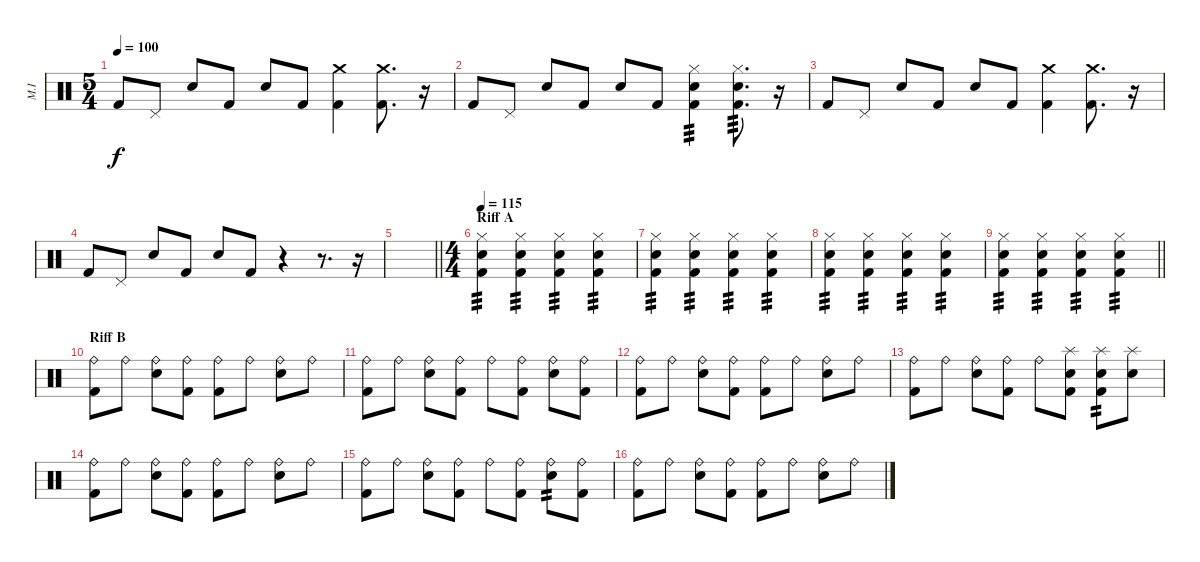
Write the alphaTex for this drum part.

\track ("M.I" "M.I") {instrument percussion}
\staff {score}
\articulation defaults
\ts (5 4)
\tempo 100
\clef neutral
\ks c "Kick (hit) 2".8{dy f} "Pedal Hi-Hat (hit)".8 "Snare (hit) 2".8 "Kick (hit) 2".8 "Snare (hit) 2".8 "Kick (hit) 2".8
("Crash medium (hit)" "Kick (hit) 2").4 ("Crash medium (hit)" "Kick (hit) 2").8{d} r.16 |
"Kick (hit) 2".8 "Pedal Hi-Hat (hit)".8 "Snare (hit) 2".8 "Kick (hit) 2".8 "Snare (hit) 2".8 "Kick (hit) 2".8 ("Hi-Hat (closed)" "Snare (hit) 2" "Kick (hit) 2").4{tp 3} ("Hi-Hat (closed)" "Snare (hit) 2" "Kick (hit) 2").8{d tp 3} r.16 |
"Kick (hit) 2".8 "Pedal Hi-Hat (hit)".8 "Snare (hit) 2".8 "Kick (hit) 2".8 "Snare (hit) 2".8 "Kick (hit) 2".8 ("Crash medium (hit)" "Kick (hit) 2").4 ("Crash medium (hit)" "Kick (hit) 2").8{d} r.16 |
"Kick (hit) 2".8 "Pedal Hi-Hat (hit)".8 "Snare (hit) 2".8 "Kick (hit) 2".8 "Snare (hit) 2".8 "Kick (hit) 2".8 r.4 r.8{d} r.16 |
\barLineRight lightlight
|
\ts (4 4)
\section ("" "Riff A")
\tempo 115
("Hi-Hat (closed)" "Snare (hit) 2" "Kick (hit) 2").4{tp 3} ("Hi-Hat (closed)" "Snare (hit) 2" "Kick (hit) 2").4{tp 3} ("Hi-Hat (closed)" "Snare (hit) 2" "Kick (hit) 2").4{tp 3} ("Hi-Hat (closed)" "Snare (hit) 2" "Kick (hit) 2").4{tp 3} |
("Hi-Hat (closed)" "Snare (hit) 2" "Kick (hit) 2").4{tp 3} ("Hi-Hat (closed)" "Snare (hit) 2" "Kick (hit) 2").4{tp 3} ("Hi-Hat (closed)" "Snare (hit) 2" "Kick (hit) 2").4{tp 3} ("Hi-Hat (closed)" "Snare (hit) 2" "Kick (hit) 2").4{tp 3} |
("Hi-Hat (closed)" "Snare (hit) 2" "Kick (hit) 2").4{tp 3} ("Hi-Hat (closed)" "Snare (hit) 2" "Kick (hit) 2").4{tp 3} ("Hi-Hat (closed)" "Snare (hit) 2" "Kick (hit) 2").4{tp 3} ("Hi-Hat (closed)" "Snare (hit) 2" "Kick (hit) 2").4{tp 3} |
\barLineRight lightlight
("Hi-Hat (closed)" "Snare (hit) 2" "Kick (hit) 2").4{tp 3} ("Hi-Hat (closed)" "Snare (hit) 2" "Kick (hit) 2").4{tp 3} ("Hi-Hat (closed)" "Snare (hit) 2" "Kick (hit) 2").4{tp 3} ("Hi-Hat (closed)" "Snare (hit) 2" "Kick (hit) 2").4{tp 3} |
\section ("" "Riff B")
("Ride (bell)" "Kick (hit) 2").8 "Ride (bell)".8 ("Ride (bell)" "Snare (hit) 2").8 ("Ride (bell)" "Kick (hit) 2").8 ("Ride (bell)" "Kick (hit) 2").8 "Ride (bell)".8 ("Ride (bell)" "Snare (hit) 2").8 "Ride (bell)".8 |
("Ride (bell)" "Kick (hit) 2").8 "Ride (bell)".8 ("Ride (bell)" "Snare (hit) 2").8 ("Ride (bell)" "Kick (hit) 2").8 "Ride (bell)".8 ("Ride (bell)" "Kick (hit) 2").8 ("Ride (bell)" "Snare (hit) 2").8 ("Ride (bell)" "Kick (hit) 2").8 |
("Ride (bell)" "Kick (hit) 2").8 "Ride (bell)".8 ("Ride (bell)" "Snare (hit) 2").8 ("Ride (bell)" "Kick (hit) 2").8 ("Ride (bell)" "Kick (hit) 2").8 "Ride (bell)".8 ("Ride (bell)" "Snare (hit) 2").8 "Ride (bell)".8 |
("Ride (bell)" "Kick (hit) 2").8 "Ride (bell)".8 ("Ride (bell)" "Snare (hit) 2").8 ("Ride (bell)" "Kick (hit) 2").8 "Ride (bell)".8 ("Splash (hit)" "Snare (hit) 2" "Kick (hit) 2").8 ("Splash (hit)" "Snare (hit) 2" "Kick (hit) 2").8{tp 2} ("Splash (hit)" "Snare (hit) 2").8 |
("Ride (bell)" "Kick (hit) 2").8 "Ride (bell)".8 ("Ride (bell)" "Snare (hit) 2").8 ("Ride (bell)" "Kick (hit) 2").8 ("Ride (bell)" "Kick (hit) 2").8 "Ride (bell)".8 ("Ride (bell)" "Snare (hit) 2").8 "Ride (bell)".8 |
("Ride (bell)" "Kick (hit) 2").8 "Ride (bell)".8 ("Ride (bell)" "Snare (hit) 2").8 ("Ride (bell)" "Kick (hit) 2").8 "Ride (bell)".8 ("Ride (bell)" "Kick (hit) 2").8 ("Ride (bell)" "Snare (hit) 2").8{tp 2} ("Ride (bell)" "Kick (hit) 2").8 |
("Ride (bell)" "Kick (hit) 2").8 "Ride (bell)".8 ("Ride (bell)" "Snare (hit) 2").8 ("Ride (bell)" "Kick (hit) 2").8 ("Ride (bell)" "Kick (hit) 2").8 "Ride (bell)".8 ("Ride (bell)" "Snare (hit) 2").8 "Ride (bell)".8
